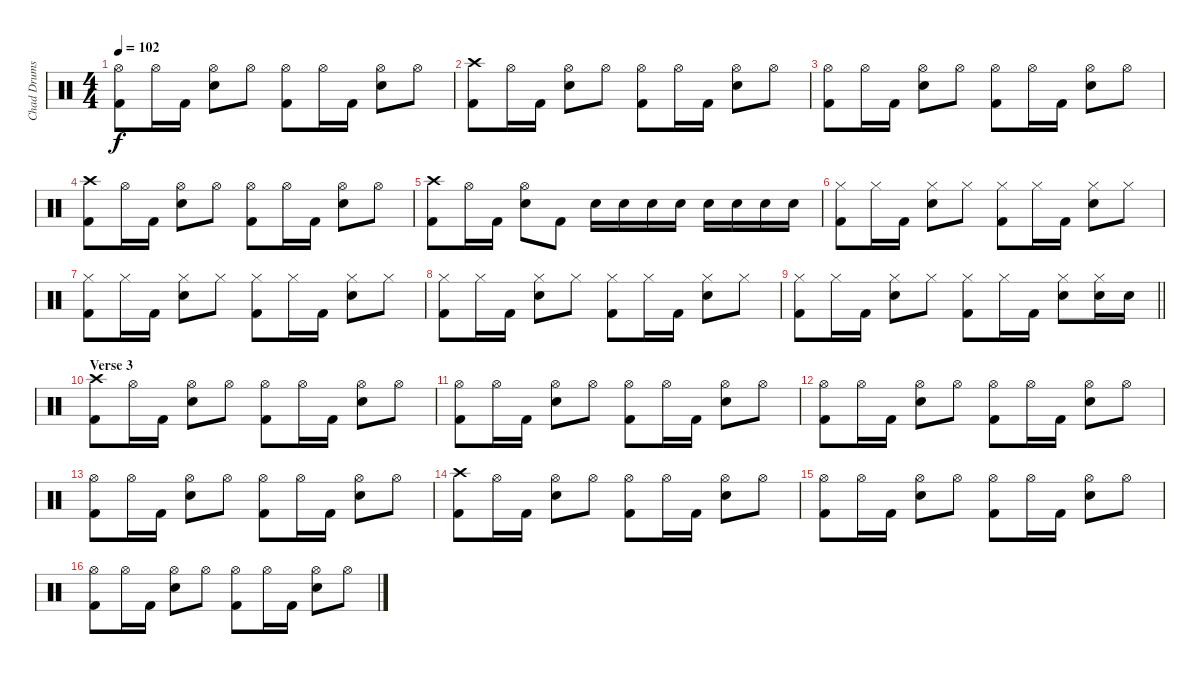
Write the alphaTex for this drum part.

\track ("Chad Drums)" "Chad Drums") {instrument percussion}
\staff {score}
\articulation defaults
\ts (4 4)
\tempo 102
\clef neutral
\ks c
("Hi-Hat (open)" "Kick (hit) 2").8{dy f} "Hi-Hat (open)".16 "Kick (hit) 2".16 ("Hi-Hat (open)" "Snare (hit) 2").8 "Hi-Hat (open)".8 ("Hi-Hat (open)" "Kick (hit) 2").8 "Hi-Hat (open)".16 "Kick (hit) 2".16 ("Hi-Hat (open)" "Snare (hit) 2").8 "Hi-Hat (open)".8 |
("Crash high (hit)" "Kick (hit) 2").8 "Hi-Hat (open)".16 "Kick (hit) 2".16 ("Hi-Hat (open)" "Snare (hit) 2").8 "Hi-Hat (open)".8 ("Hi-Hat (open)" "Kick (hit) 2").8 "Hi-Hat (open)".16 "Kick (hit) 2".16 ("Hi-Hat (open)" "Snare (hit) 2").8 "Hi-Hat (open)".8 |
("Hi-Hat (open)" "Kick (hit) 2").8 "Hi-Hat (open)".16 "Kick (hit) 2".16 ("Hi-Hat (open)" "Snare (hit) 2").8 "Hi-Hat (open)".8 ("Hi-Hat (open)" "Kick (hit) 2").8 "Hi-Hat (open)".16 "Kick (hit) 2".16 ("Hi-Hat (open)" "Snare (hit) 2").8 "Hi-Hat (open)".8 |
("Crash high (hit)" "Kick (hit) 2").8 "Hi-Hat (open)".16 "Kick (hit) 2".16 ("Hi-Hat (open)" "Snare (hit) 2").8 "Hi-Hat (open)".8 ("Hi-Hat (open)" "Kick (hit) 2").8 "Hi-Hat (open)".16 "Kick (hit) 2".16 ("Hi-Hat (open)" "Snare (hit) 2").8 "Hi-Hat (open)".8 |
("Crash high (hit)" "Kick (hit) 2").8 "Hi-Hat (open)".16 "Kick (hit) 2".16 ("Hi-Hat (open)" "Snare (hit) 2").8 "Kick (hit) 2".8 "Snare (hit) 2".16 "Snare (hit) 2".16 "Snare (hit) 2".16 "Snare (hit) 2".16 "Snare (hit) 2".16 "Snare (hit) 2".16 "Snare (hit) 2".16 "Snare (hit) 2".16 |
("Hi-Hat (closed)" "Kick (hit) 2").8 "Hi-Hat (closed)".16 "Kick (hit) 2".16 ("Hi-Hat (closed)" "Snare (hit) 2").8 "Hi-Hat (closed)".8 ("Hi-Hat (closed)" "Kick (hit) 2").8 "Hi-Hat (closed)".16 "Kick (hit) 2".16 ("Hi-Hat (closed)" "Snare (hit) 2").8 "Hi-Hat (closed)".8 |
("Hi-Hat (closed)" "Kick (hit) 2").8 "Hi-Hat (closed)".16 "Kick (hit) 2".16 ("Hi-Hat (closed)" "Snare (hit) 2").8 "Hi-Hat (closed)".8 ("Hi-Hat (closed)" "Kick (hit) 2").8 "Hi-Hat (closed)".16 "Kick (hit) 2".16 ("Hi-Hat (closed)" "Snare (hit) 2").8 "Hi-Hat (closed)".8 |
("Hi-Hat (closed)" "Kick (hit) 2").8 "Hi-Hat (closed)".16 "Kick (hit) 2".16 ("Hi-Hat (closed)" "Snare (hit) 2").8 "Hi-Hat (closed)".8 ("Hi-Hat (closed)" "Kick (hit) 2").8 "Hi-Hat (closed)".16 "Kick (hit) 2".16 ("Hi-Hat (closed)" "Snare (hit) 2").8 "Hi-Hat (closed)".8 |
\barLineRight lightlight
("Hi-Hat (closed)" "Kick (hit) 2").8 "Hi-Hat (closed)".16 "Kick (hit) 2".16 ("Hi-Hat (closed)" "Snare (hit) 2").8 "Hi-Hat (closed)".8 ("Hi-Hat (closed)" "Kick (hit) 2").8 "Hi-Hat (closed)".16 "Kick (hit) 2".16 ("Hi-Hat (closed)" "Snare (hit) 2").8 ("Hi-Hat (closed)" "Snare (hit) 2").16 "Snare (hit) 2".16 |
\section ("" "Verse 3")
("Crash high (hit)" "Kick (hit) 2").8 "Hi-Hat (open)".16 "Kick (hit) 2".16 ("Hi-Hat (open)" "Snare (hit) 2").8 "Hi-Hat (open)".8 ("Hi-Hat (open)" "Kick (hit) 2").8 "Hi-Hat (open)".16 "Kick (hit) 2".16 ("Hi-Hat (open)" "Snare (hit) 2").8 "Hi-Hat (open)".8 |
("Hi-Hat (open)" "Kick (hit) 2").8 "Hi-Hat (open)".16 "Kick (hit) 2".16 ("Hi-Hat (open)" "Snare (hit) 2").8 "Hi-Hat (open)".8 ("Hi-Hat (open)" "Kick (hit) 2").8 "Hi-Hat (open)".16 "Kick (hit) 2".16 ("Hi-Hat (open)" "Snare (hit) 2").8 "Hi-Hat (open)".8 |
("Hi-Hat (open)" "Kick (hit) 2").8 "Hi-Hat (open)".16 "Kick (hit) 2".16 ("Hi-Hat (open)" "Snare (hit) 2").8 "Hi-Hat (open)".8 ("Hi-Hat (open)" "Kick (hit) 2").8 "Hi-Hat (open)".16 "Kick (hit) 2".16 ("Hi-Hat (open)" "Snare (hit) 2").8 "Hi-Hat (open)".8 |
("Hi-Hat (open)" "Kick (hit) 2").8 "Hi-Hat (open)".16 "Kick (hit) 2".16 ("Hi-Hat (open)" "Snare (hit) 2").8 "Hi-Hat (open)".8 ("Hi-Hat (open)" "Kick (hit) 2").8 "Hi-Hat (open)".16 "Kick (hit) 2".16 ("Hi-Hat (open)" "Snare (hit) 2").8 "Hi-Hat (open)".8 |
("Crash high (hit)" "Kick (hit) 2").8 "Hi-Hat (open)".16 "Kick (hit) 2".16 ("Hi-Hat (open)" "Snare (hit) 2").8 "Hi-Hat (open)".8 ("Hi-Hat (open)" "Kick (hit) 2").8 "Hi-Hat (open)".16 "Kick (hit) 2".16 ("Hi-Hat (open)" "Snare (hit) 2").8 "Hi-Hat (open)".8 |
("Hi-Hat (open)" "Kick (hit) 2").8 "Hi-Hat (open)".16 "Kick (hit) 2".16 ("Hi-Hat (open)" "Snare (hit) 2").8 "Hi-Hat (open)".8 ("Hi-Hat (open)" "Kick (hit) 2").8 "Hi-Hat (open)".16 "Kick (hit) 2".16 ("Hi-Hat (open)" "Snare (hit) 2").8 "Hi-Hat (open)".8 |
("Hi-Hat (open)" "Kick (hit) 2").8 "Hi-Hat (open)".16 "Kick (hit) 2".16 ("Hi-Hat (open)" "Snare (hit) 2").8 "Hi-Hat (open)".8 ("Hi-Hat (open)" "Kick (hit) 2").8 "Hi-Hat (open)".16 "Kick (hit) 2".16 ("Hi-Hat (open)" "Snare (hit) 2").8 "Hi-Hat (open)".8
